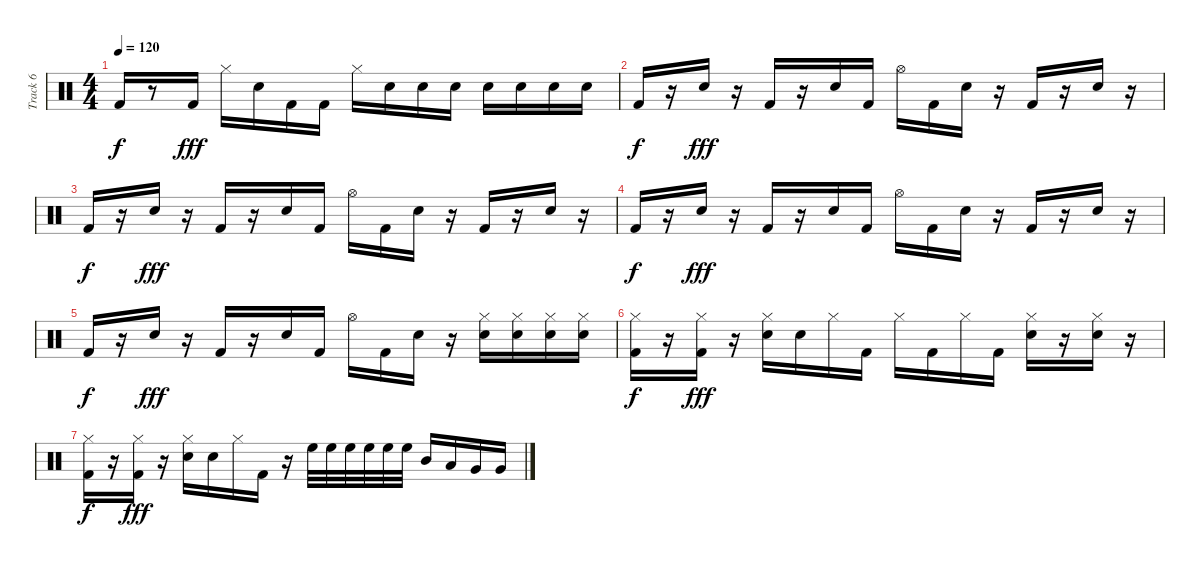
\track ("Track 6" "Track 6") {instrument percussion}
\staff {score}
\articulation defaults
\ts (4 4)
\tempo 120
\clef neutral
\ks c "Kick (hit) 2".16{dy f}
r.8 "Kick (hit) 2".16{dy fff} "Hi-Hat (closed)".16 "Snare (hit) 2".16 "Kick (hit) 2".16 "Kick (hit) 2".16 "Hi-Hat (closed)".16 "Snare (hit) 2".16 "Snare (hit) 2".16 "Snare (hit) 2".16 "Snare (hit) 2".16 "Snare (hit) 2".16 "Snare (hit) 2".16 "Snare (hit) 2".16 |
"Kick (hit) 2".16{dy f} r.16 "Snare (hit) 2".16{dy fff} r.16 "Kick (hit) 2".16 r.16 "Snare (hit) 2".16 "Kick (hit) 2".16 "Hi-Hat (open)".16 "Kick (hit) 2".16 "Snare (hit) 2".16 r.16 "Kick (hit) 2".16 r.16 "Snare (hit) 2".16 r.16 |
"Kick (hit) 2".16{dy f} r.16 "Snare (hit) 2".16{dy fff} r.16 "Kick (hit) 2".16 r.16 "Snare (hit) 2".16 "Kick (hit) 2".16 "Hi-Hat (open)".16 "Kick (hit) 2".16 "Snare (hit) 2".16 r.16 "Kick (hit) 2".16 r.16 "Snare (hit) 2".16 r.16 |
"Kick (hit) 2".16{dy f} r.16 "Snare (hit) 2".16{dy fff} r.16 "Kick (hit) 2".16 r.16 "Snare (hit) 2".16 "Kick (hit) 2".16 "Hi-Hat (open)".16 "Kick (hit) 2".16 "Snare (hit) 2".16 r.16 "Kick (hit) 2".16 r.16 "Snare (hit) 2".16 r.16 |
"Kick (hit) 2".16{dy f} r.16 "Snare (hit) 2".16{dy fff} r.16 "Kick (hit) 2".16 r.16 "Snare (hit) 2".16 "Kick (hit) 2".16 "Hi-Hat (open)".16 "Kick (hit) 2".16 "Snare (hit) 2".16 r.16 ("Snare (hit) 2" "Hi-Hat (closed)").16 ("Snare (hit) 2" "Hi-Hat (closed)").16 ("Snare (hit) 2" "Hi-Hat (closed)").16 ("Snare (hit) 2" "Hi-Hat (closed)").16 |
("Hi-Hat (closed)" "Kick (hit) 2").16{dy f} r.16 ("Hi-Hat (closed)" "Kick (hit) 2").16{dy fff} r.16 ("Hi-Hat (closed)" "Snare (hit) 2").16 "Snare (hit) 2".16 "Hi-Hat (closed)".16 "Kick (hit) 2".16 "Hi-Hat (closed)".16 "Kick (hit) 2".16 "Hi-Hat (closed)".16 "Kick (hit) 2".16 ("Hi-Hat (closed)" "Snare (hit) 2").16 r.16 ("Hi-Hat (closed)" "Snare (hit) 2").16 r.16 |
("Hi-Hat (closed)" "Kick (hit) 2").16{dy f} r.16 ("Hi-Hat (closed)" "Kick (hit) 2").16{dy fff} r.16 ("Hi-Hat (closed)" "Snare (hit) 2").16 "Snare (hit) 2".16 "Hi-Hat (closed)".16 "Kick (hit) 2".16 r.16 "High Floor Tom (hit)".32 "High Floor Tom (hit)".32 "High Floor Tom (hit)".32 "High Floor Tom (hit)".32 "High Floor Tom (hit)".32 "High Floor Tom (hit)".32 "Mid Tom (hit)".16 "Low Tom (hit)".16 "Very Low Tom (hit)".16 "Very Low Tom (hit)".16
